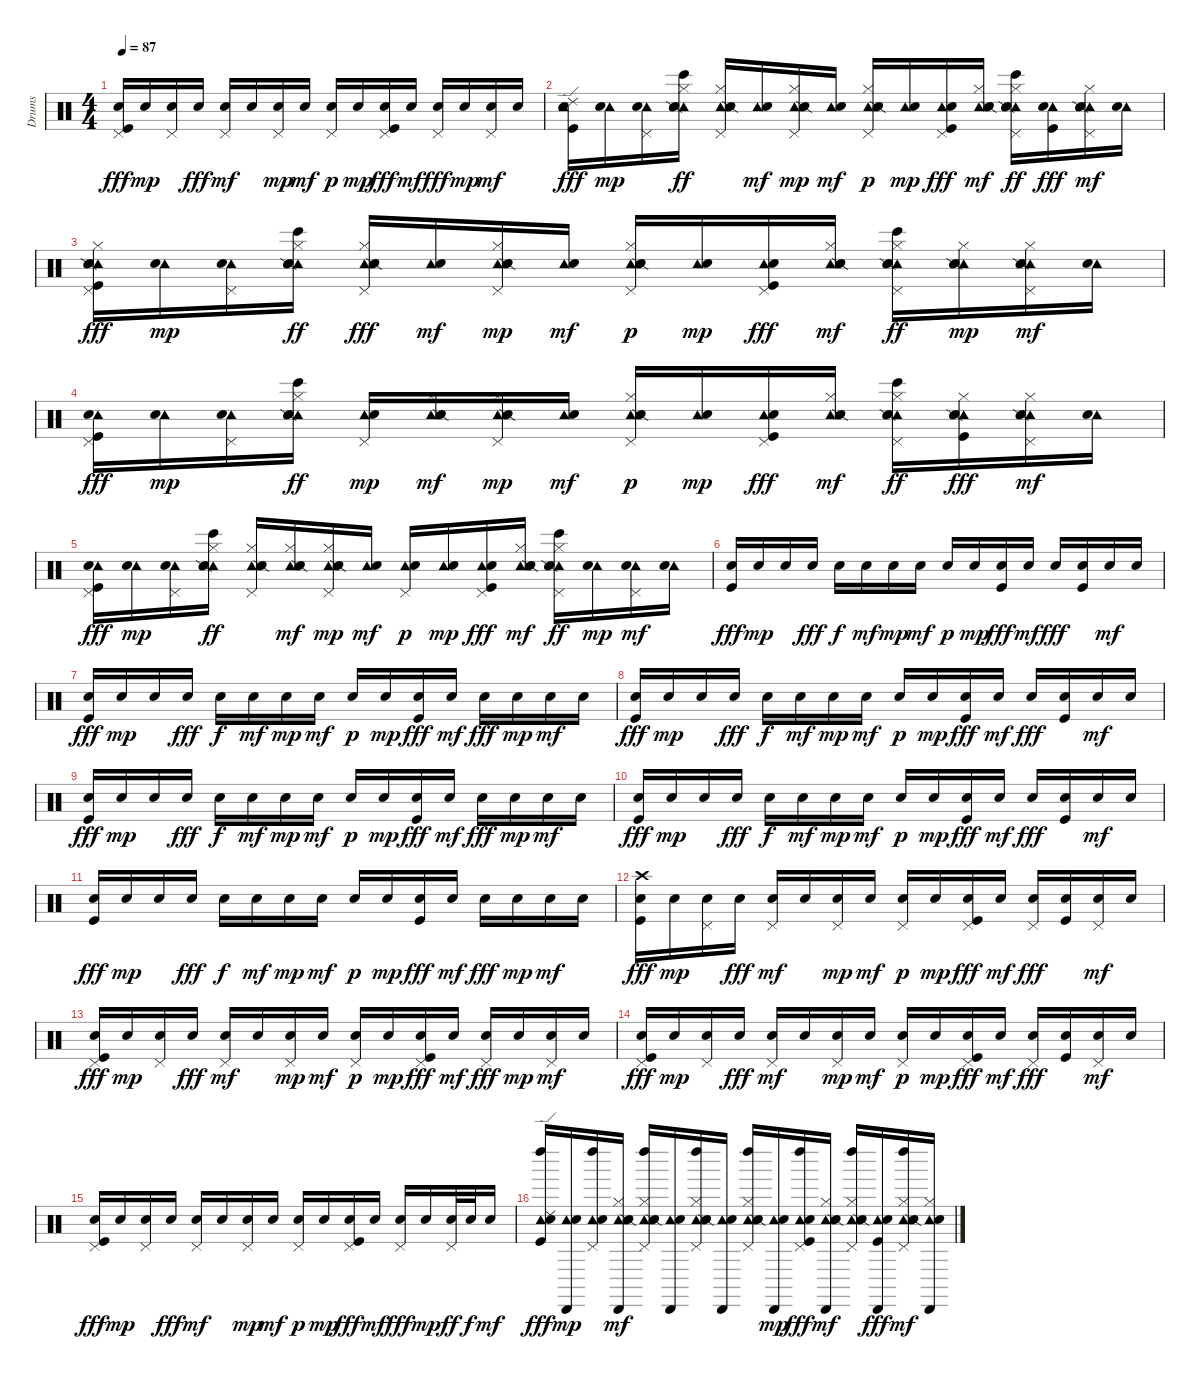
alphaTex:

\track ("Drums" "Drums") {instrument percussion}
\staff {score}
\articulation defaults
\ts (4 4)
\tempo 87
\clef neutral
\ks c
("Pedal Hi-Hat (hit)" "Snare (hit) 2" "Kick (hit)").16{dy fff} "Snare (hit) 2".16{dy mp} ("Pedal Hi-Hat (hit)" "Snare (hit) 2").16 "Hand Clap (hit)".16{dy fff} ("Pedal Hi-Hat (hit)" "Snare (hit) 2").16{dy mf} "Snare (hit) 2".16 ("Pedal Hi-Hat (hit)" "Snare (hit) 2").16{dy mp} "Snare (hit) 2".16{dy mf} ("Pedal Hi-Hat (hit)" "Snare (hit) 2").16{dy p} "Snare (hit) 2".16{dy mp} ("Pedal Hi-Hat (hit)" "Snare (hit) 2" "Kick (hit)").16{dy fff} "Snare (hit) 2".16{dy mf} ("Pedal Hi-Hat (hit)" "Hand Clap (hit)").16{dy fff} "Snare (hit) 2".16{dy mp} ("Pedal Hi-Hat (hit)" "Snare (hit) 2").16{dy mf} "Snare (hit) 2".16 |
("Ride (edge) 2" "Tambourine (hit)" "Snare (hit) 2" "Kick (hit)").16{dy fff} ("Tambourine (hit)" "Snare (hit) 2").16{dy mp} ("Pedal Hi-Hat (hit)" "Tambourine (hit)" "Snare (hit) 2").16 ("Tambourine (hit)" "Hi-Hat (closed)" "Snare (side stick) 2" "Hand Clap (hit)" "Bongo High (hit)").16{dy ff} ("Pedal Hi-Hat (hit)" "Tambourine (hit)" "Hi-Hat (closed)" "Snare (side stick) 2" "Snare (hit) 2").16 ("Tambourine (hit)" "Snare (hit) 2").16{dy mf} ("Pedal Hi-Hat (hit)" "Tambourine (hit)" "Hi-Hat (closed)" "Snare (side stick) 2" "Snare (hit) 2").16{dy mp} ("Tambourine (hit)" "Snare (hit) 2").16{dy mf} ("Pedal Hi-Hat (hit)" "Tambourine (hit)" "Hi-Hat (closed)" "Snare (side stick) 2" "Snare (hit) 2").16{dy p} ("Tambourine (hit)" "Snare (hit) 2").16{dy mp} ("Pedal Hi-Hat (hit)" "Tambourine (hit)" "Snare (hit) 2" "Kick (hit)").16{dy fff} ("Tambourine (hit)" "Hi-Hat (closed)" "Snare (side stick) 2" "Snare (hit) 2").16{dy mf} ("Pedal Hi-Hat (hit)" "Tambourine (hit)" "Hi-Hat (closed)" "Snare (side stick) 2" "Hand Clap (hit)" "Bongo High (hit)").16{dy ff} ("Tambourine (hit)" "Snare (hit) 2" "Kick (hit)").16{dy fff} ("Pedal Hi-Hat (hit)" "Tambourine (hit)" "Hi-Hat (closed)" "Snare (side stick) 2" "Snare (hit) 2").16{dy mf} ("Tambourine (hit)" "Snare (hit) 2").16 |
("Pedal Hi-Hat (hit)" "Tambourine (hit)" "Hi-Hat (closed)" "Snare (side stick) 2" "Snare (hit) 2" "Kick (hit)").16{dy fff} ("Tambourine (hit)" "Snare (hit) 2").16{dy mp} ("Pedal Hi-Hat (hit)" "Tambourine (hit)" "Snare (hit) 2").16 ("Tambourine (hit)" "Hi-Hat (closed)" "Snare (side stick) 2" "Hand Clap (hit)" "Bongo High (hit)").16{dy ff} ("Pedal Hi-Hat (hit)" "Tambourine (hit)" "Hi-Hat (closed)" "Snare (side stick) 2" "Snare (hit) 2").16{dy fff} ("Tambourine (hit)" "Snare (hit) 2").16{dy mf} ("Pedal Hi-Hat (hit)" "Tambourine (hit)" "Hi-Hat (closed)" "Snare (side stick) 2" "Snare (hit) 2").16{dy mp} ("Tambourine (hit)" "Snare (hit) 2").16{dy mf} ("Pedal Hi-Hat (hit)" "Tambourine (hit)" "Hi-Hat (closed)" "Snare (side stick) 2" "Snare (hit) 2").16{dy p} ("Tambourine (hit)" "Snare (hit) 2").16{dy mp} ("Pedal Hi-Hat (hit)" "Tambourine (hit)" "Snare (hit) 2" "Kick (hit)").16{dy fff} ("Tambourine (hit)" "Hi-Hat (closed)" "Snare (side stick) 2" "Snare (hit) 2").16{dy mf} ("Pedal Hi-Hat (hit)" "Tambourine (hit)" "Hi-Hat (closed)" "Snare (side stick) 2" "Hand Clap (hit)" "Bongo High (hit)").16{dy ff} ("Tambourine (hit)" "Hi-Hat (closed)" "Snare (side stick) 2" "Snare (hit) 2").16{dy mp} ("Pedal Hi-Hat (hit)" "Tambourine (hit)" "Hi-Hat (closed)" "Snare (side stick) 2" "Snare (hit) 2").16{dy mf} ("Tambourine (hit)" "Snare (hit) 2").16 |
("Pedal Hi-Hat (hit)" "Tambourine (hit)" "Snare (hit) 2" "Kick (hit)").16{dy fff} ("Tambourine (hit)" "Snare (hit) 2").16{dy mp} ("Pedal Hi-Hat (hit)" "Tambourine (hit)" "Snare (hit) 2").16 ("Tambourine (hit)" "Hi-Hat (closed)" "Snare (side stick) 2" "Hand Clap (hit)" "Bongo High (hit)").16{dy ff} ("Pedal Hi-Hat (hit)" "Tambourine (hit)" "Snare (hit) 2").16{dy mp} ("Tambourine (hit)" "Hi-Hat (closed)" "Snare (side stick) 2" "Snare (hit) 2").16{dy mf} ("Pedal Hi-Hat (hit)" "Tambourine (hit)" "Hi-Hat (closed)" "Snare (side stick) 2" "Snare (hit) 2").16{dy mp} ("Tambourine (hit)" "Snare (hit) 2").16{dy mf} ("Pedal Hi-Hat (hit)" "Tambourine (hit)" "Hi-Hat (closed)" "Snare (side stick) 2" "Snare (hit) 2").16{dy p} ("Tambourine (hit)" "Snare (hit) 2").16{dy mp} ("Pedal Hi-Hat (hit)" "Tambourine (hit)" "Snare (hit) 2" "Kick (hit)").16{dy fff} ("Tambourine (hit)" "Hi-Hat (closed)" "Snare (side stick) 2" "Snare (hit) 2").16{dy mf} ("Pedal Hi-Hat (hit)" "Tambourine (hit)" "Hi-Hat (closed)" "Snare (side stick) 2" "Hand Clap (hit)" "Bongo High (hit)").16{dy ff} ("Tambourine (hit)" "Hi-Hat (closed)" "Snare (side stick) 2" "Snare (hit) 2" "Kick (hit)").16{dy fff} ("Pedal Hi-Hat (hit)" "Tambourine (hit)" "Hi-Hat (closed)" "Snare (side stick) 2" "Snare (hit) 2").16{dy mf} ("Tambourine (hit)" "Snare (hit) 2").16 |
("Pedal Hi-Hat (hit)" "Tambourine (hit)" "Snare (hit) 2" "Kick (hit)").16{dy fff} ("Tambourine (hit)" "Snare (hit) 2").16{dy mp} ("Pedal Hi-Hat (hit)" "Tambourine (hit)" "Snare (hit) 2").16 ("Tambourine (hit)" "Hi-Hat (closed)" "Snare (side stick) 2" "Hand Clap (hit)" "Bongo High (hit)").16{dy ff} ("Pedal Hi-Hat (hit)" "Tambourine (hit)" "Hi-Hat (closed)" "Snare (side stick) 2" "Snare (hit) 2").16 ("Tambourine (hit)" "Hi-Hat (closed)" "Snare (side stick) 2" "Snare (hit) 2").16{dy mf} ("Pedal Hi-Hat (hit)" "Tambourine (hit)" "Hi-Hat (closed)" "Snare (side stick) 2" "Snare (hit) 2").16{dy mp} ("Tambourine (hit)" "Snare (hit) 2").16{dy mf} ("Pedal Hi-Hat (hit)" "Tambourine (hit)" "Snare (hit) 2").16{dy p} ("Tambourine (hit)" "Snare (hit) 2").16{dy mp} ("Pedal Hi-Hat (hit)" "Tambourine (hit)" "Snare (hit) 2" "Kick (hit)").16{dy fff} ("Tambourine (hit)" "Hi-Hat (closed)" "Snare (side stick) 2" "Snare (hit) 2").16{dy mf} ("Pedal Hi-Hat (hit)" "Tambourine (hit)" "Hi-Hat (closed)" "Snare (side stick) 2" "Hand Clap (hit)" "Bongo High (hit)").16{dy ff} ("Tambourine (hit)" "Snare (hit) 2").16{dy mp} ("Pedal Hi-Hat (hit)" "Tambourine (hit)" "Snare (hit) 2").16{dy mf} ("Tambourine (hit)" "Snare (hit) 2").16 |
("Snare (hit) 2" "Kick (hit)").16{dy fff} "Snare (hit) 2".16{dy mp} "Snare (hit) 2".16 "Hand Clap (hit)".16{dy fff} "Snare (hit) 2".16{dy f} "Snare (hit) 2".16{dy mf} "Snare (hit) 2".16{dy mp} "Snare (hit) 2".16{dy mf} "Snare (hit) 2".16{dy p} "Snare (hit) 2".16{dy mp} ("Snare (hit) 2" "Kick (hit)").16{dy fff} "Snare (hit) 2".16{dy mf} "Hand Clap (hit)".16{dy fff} ("Snare (hit) 2" "Kick (hit)").16 "Snare (hit) 2".16{dy mf} "Snare (hit) 2".16 |
("Snare (hit) 2" "Kick (hit)").16{dy fff} "Snare (hit) 2".16{dy mp} "Snare (hit) 2".16 "Hand Clap (hit)".16{dy fff} "Snare (hit) 2".16{dy f} "Snare (hit) 2".16{dy mf} "Snare (hit) 2".16{dy mp} "Snare (hit) 2".16{dy mf} "Snare (hit) 2".16{dy p} "Snare (hit) 2".16{dy mp} ("Snare (hit) 2" "Kick (hit)").16{dy fff} "Snare (hit) 2".16{dy mf} "Hand Clap (hit)".16{dy fff} "Snare (hit) 2".16{dy mp} "Snare (hit) 2".16{dy mf} "Snare (hit) 2".16 |
("Snare (hit) 2" "Kick (hit)").16{dy fff} "Snare (hit) 2".16{dy mp} "Snare (hit) 2".16 "Hand Clap (hit)".16{dy fff} "Snare (hit) 2".16{dy f} "Snare (hit) 2".16{dy mf} "Snare (hit) 2".16{dy mp} "Snare (hit) 2".16{dy mf} "Snare (hit) 2".16{dy p} "Snare (hit) 2".16{dy mp} ("Snare (hit) 2" "Kick (hit)").16{dy fff} "Snare (hit) 2".16{dy mf} "Hand Clap (hit)".16{dy fff} ("Snare (hit) 2" "Kick (hit)").16 "Snare (hit) 2".16{dy mf} "Snare (hit) 2".16 |
("Snare (hit) 2" "Kick (hit)").16{dy fff} "Snare (hit) 2".16{dy mp} "Snare (hit) 2".16 "Hand Clap (hit)".16{dy fff} "Snare (hit) 2".16{dy f} "Snare (hit) 2".16{dy mf} "Snare (hit) 2".16{dy mp} "Snare (hit) 2".16{dy mf} "Snare (hit) 2".16{dy p} "Snare (hit) 2".16{dy mp} ("Snare (hit) 2" "Kick (hit)").16{dy fff} "Snare (hit) 2".16{dy mf} "Hand Clap (hit)".16{dy fff} "Snare (hit) 2".16{dy mp} "Snare (hit) 2".16{dy mf} "Snare (hit) 2".16 |
("Snare (hit) 2" "Kick (hit)").16{dy fff} "Snare (hit) 2".16{dy mp} "Snare (hit) 2".16 "Hand Clap (hit)".16{dy fff} "Snare (hit) 2".16{dy f} "Snare (hit) 2".16{dy mf} "Snare (hit) 2".16{dy mp} "Snare (hit) 2".16{dy mf} "Snare (hit) 2".16{dy p} "Snare (hit) 2".16{dy mp} ("Snare (hit) 2" "Kick (hit)").16{dy fff} "Snare (hit) 2".16{dy mf} "Hand Clap (hit)".16{dy fff} ("Snare (hit) 2" "Kick (hit)").16 "Snare (hit) 2".16{dy mf} "Snare (hit) 2".16 |
("Snare (hit) 2" "Kick (hit)").16{dy fff} "Snare (hit) 2".16{dy mp} "Snare (hit) 2".16 "Hand Clap (hit)".16{dy fff} "Snare (hit) 2".16{dy f} "Snare (hit) 2".16{dy mf} "Snare (hit) 2".16{dy mp} "Snare (hit) 2".16{dy mf} "Snare (hit) 2".16{dy p} "Snare (hit) 2".16{dy mp} ("Snare (hit) 2" "Kick (hit)").16{dy fff} "Snare (hit) 2".16{dy mf} "Hand Clap (hit)".16{dy fff} "Snare (hit) 2".16{dy mp} "Snare (hit) 2".16{dy mf} "Snare (hit) 2".16 |
("Crash high (hit)" "Snare (hit) 2" "Kick (hit)").16{dy fff} "Snare (hit) 2".16{dy mp} ("Pedal Hi-Hat (hit)" "Snare (hit) 2").16 "Hand Clap (hit)".16{dy fff} ("Pedal Hi-Hat (hit)" "Snare (hit) 2").16{dy mf} "Snare (hit) 2".16 ("Pedal Hi-Hat (hit)" "Snare (hit) 2").16{dy mp} "Snare (hit) 2".16{dy mf} ("Pedal Hi-Hat (hit)" "Snare (hit) 2").16{dy p} "Snare (hit) 2".16{dy mp} ("Pedal Hi-Hat (hit)" "Snare (hit) 2" "Kick (hit)").16{dy fff} "Snare (hit) 2".16{dy mf} ("Pedal Hi-Hat (hit)" "Hand Clap (hit)").16{dy fff} ("Snare (hit) 2" "Kick (hit)").16 ("Pedal Hi-Hat (hit)" "Snare (hit) 2").16{dy mf} "Snare (hit) 2".16 |
("Pedal Hi-Hat (hit)" "Snare (hit) 2" "Kick (hit)").16{dy fff} "Snare (hit) 2".16{dy mp} ("Pedal Hi-Hat (hit)" "Snare (hit) 2").16 "Hand Clap (hit)".16{dy fff} ("Pedal Hi-Hat (hit)" "Snare (hit) 2").16{dy mf} "Snare (hit) 2".16 ("Pedal Hi-Hat (hit)" "Snare (hit) 2").16{dy mp} "Snare (hit) 2".16{dy mf} ("Pedal Hi-Hat (hit)" "Snare (hit) 2").16{dy p} "Snare (hit) 2".16{dy mp} ("Pedal Hi-Hat (hit)" "Snare (hit) 2" "Kick (hit)").16{dy fff} "Snare (hit) 2".16{dy mf} ("Pedal Hi-Hat (hit)" "Hand Clap (hit)").16{dy fff} "Snare (hit) 2".16{dy mp} ("Pedal Hi-Hat (hit)" "Snare (hit) 2").16{dy mf} "Snare (hit) 2".16 |
("Pedal Hi-Hat (hit)" "Snare (hit) 2" "Kick (hit)").16{dy fff} "Snare (hit) 2".16{dy mp} ("Pedal Hi-Hat (hit)" "Snare (hit) 2").16 "Hand Clap (hit)".16{dy fff} ("Pedal Hi-Hat (hit)" "Snare (hit) 2").16{dy mf} "Snare (hit) 2".16 ("Pedal Hi-Hat (hit)" "Snare (hit) 2").16{dy mp} "Snare (hit) 2".16{dy mf} ("Pedal Hi-Hat (hit)" "Snare (hit) 2").16{dy p} "Snare (hit) 2".16{dy mp} ("Pedal Hi-Hat (hit)" "Snare (hit) 2" "Kick (hit)").16{dy fff} "Snare (hit) 2".16{dy mf} ("Pedal Hi-Hat (hit)" "Hand Clap (hit)").16{dy fff} ("Snare (hit) 2" "Kick (hit)").16 ("Pedal Hi-Hat (hit)" "Snare (hit) 2").16{dy mf} "Snare (hit) 2".16 |
("Pedal Hi-Hat (hit)" "Snare (hit) 2" "Kick (hit)").16{dy fff} "Snare (hit) 2".16{dy mp} ("Pedal Hi-Hat (hit)" "Snare (hit) 2").16 "Hand Clap (hit)".16{dy fff} ("Pedal Hi-Hat (hit)" "Snare (hit) 2").16{dy mf} "Snare (hit) 2".16 ("Pedal Hi-Hat (hit)" "Snare (hit) 2").16{dy mp} "Snare (hit) 2".16{dy mf} ("Pedal Hi-Hat (hit)" "Snare (hit) 2").16{dy p} "Snare (hit) 2".16{dy mp} ("Pedal Hi-Hat (hit)" "Snare (hit) 2" "Kick (hit)").16{dy fff} "Snare (hit) 2".16{dy mf} ("Pedal Hi-Hat (hit)" "Hand Clap (hit)").16{dy fff} "Snare (hit) 2".16{dy mp} ("Pedal Hi-Hat (hit)" "Hand Clap (hit)").32{dy ff} "Hand Clap (hit)".32{dy f} "Hand Clap (hit)".16{dy mf} |
("Left Maraca (hit)" "Tambourine (hit)" "Ride (edge) 2" "Hand Clap (hit)" "Kick (hit)").16{dy fff} ("Cabasa (hit)" "Tambourine (hit)" "Snare (hit) 2").16{dy mp} ("Left Maraca (hit)" "Tambourine (hit)" "Pedal Hi-Hat (hit)" "Snare (hit) 2").16 ("Cabasa (hit)" "Tambourine (hit)" "Hi-Hat (closed)" "Hand Clap (hit)" "Snare (side stick) 2").16{dy mf} ("Left Maraca (hit)" "Tambourine (hit)" "Pedal Hi-Hat (hit)" "Hi-Hat (closed)" "Snare (hit) 2" "Snare (side stick) 2").16 ("Cabasa (hit)" "Tambourine (hit)" "Snare (hit) 2").16 ("Left Maraca (hit)" "Tambourine (hit)" "Pedal Hi-Hat (hit)" "Hi-Hat (closed)" "Snare (hit) 2" "Snare (side stick) 2").16 ("Cabasa (hit)" "Tambourine (hit)" "Snare (hit) 2").16 ("Left Maraca (hit)" "Tambourine (hit)" "Pedal Hi-Hat (hit)" "Hi-Hat (closed)" "Snare (hit) 2" "Snare (side stick) 2").16 ("Cabasa (hit)" "Tambourine (hit)" "Snare (hit) 2").16{dy mp} ("Left Maraca (hit)" "Tambourine (hit)" "Pedal Hi-Hat (hit)" "Snare (hit) 2" "Kick (hit)").16{dy fff} ("Cabasa (hit)" "Tambourine (hit)" "Hi-Hat (closed)" "Snare (hit) 2" "Snare (side stick) 2").16{dy mf} ("Left Maraca (hit)" "Tambourine (hit)" "Pedal Hi-Hat (hit)" "Hi-Hat (closed)" "Hand Clap (hit)" "Snare (side stick) 2").16 ("Cabasa (hit)" "Tambourine (hit)" "Snare (hit) 2" "Kick (hit)").16{dy fff} ("Left Maraca (hit)" "Tambourine (hit)" "Pedal Hi-Hat (hit)" "Hi-Hat (closed)" "Snare (hit) 2" "Snare (side stick) 2").16{dy mf} ("Cabasa (hit)" "Tambourine (hit)" "Hi-Hat (closed)" "Snare (hit) 2").16
